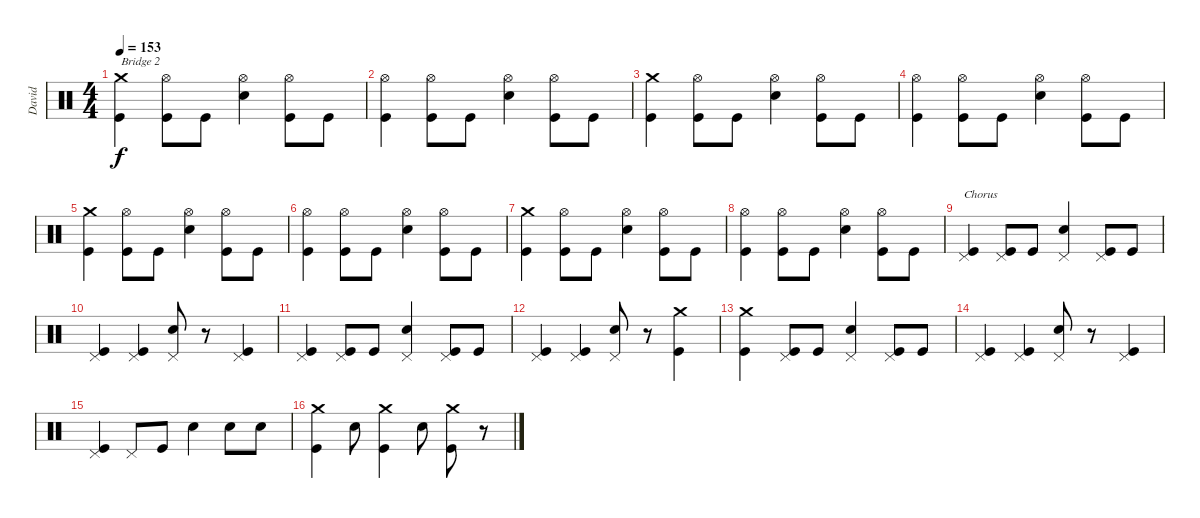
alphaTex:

\track ("David" "David") {instrument percussion}
\staff {score}
\articulation defaults
\ts (4 4)
\tempo 153
\clef neutral
\ks c
("Crash medium (hit)" "Kick (hit)").4{txt "Bridge 2" dy f} ("Hi-Hat (open)" "Kick (hit)").8 "Kick (hit)".8 ("Hi-Hat (open)" "Snare (hit) 2").4 ("Hi-Hat (open)" "Kick (hit)").8 "Kick (hit)".8 |
("Hi-Hat (open)" "Kick (hit)").4 ("Hi-Hat (open)" "Kick (hit)").8 "Kick (hit)".8 ("Hi-Hat (open)" "Snare (hit) 2").4 ("Hi-Hat (open)" "Kick (hit)").8 "Kick (hit)".8 |
("Crash medium (hit)" "Kick (hit)").4 ("Hi-Hat (open)" "Kick (hit)").8 "Kick (hit)".8 ("Hi-Hat (open)" "Snare (hit) 2").4 ("Hi-Hat (open)" "Kick (hit)").8 "Kick (hit)".8 |
("Hi-Hat (open)" "Kick (hit)").4 ("Hi-Hat (open)" "Kick (hit)").8 "Kick (hit)".8 ("Hi-Hat (open)" "Snare (hit) 2").4 ("Hi-Hat (open)" "Kick (hit)").8 "Kick (hit)".8 |
("Crash medium (hit)" "Kick (hit)").4 ("Hi-Hat (open)" "Kick (hit)").8 "Kick (hit)".8 ("Hi-Hat (open)" "Snare (hit) 2").4 ("Hi-Hat (open)" "Kick (hit)").8 "Kick (hit)".8 |
("Hi-Hat (open)" "Kick (hit)").4 ("Hi-Hat (open)" "Kick (hit)").8 "Kick (hit)".8 ("Hi-Hat (open)" "Snare (hit) 2").4 ("Hi-Hat (open)" "Kick (hit)").8 "Kick (hit)".8 |
("Crash medium (hit)" "Kick (hit)").4 ("Hi-Hat (open)" "Kick (hit)").8 "Kick (hit)".8 ("Hi-Hat (open)" "Snare (hit) 2").4 ("Hi-Hat (open)" "Kick (hit)").8 "Kick (hit)".8 |
("Hi-Hat (open)" "Kick (hit)").4 ("Hi-Hat (open)" "Kick (hit)").8 "Kick (hit)".8 ("Hi-Hat (open)" "Snare (hit) 2").4 ("Hi-Hat (open)" "Kick (hit)").8 "Kick (hit)".8 |
("Pedal Hi-Hat (hit)" "Kick (hit)").4{txt "Chorus"} ("Pedal Hi-Hat (hit)" "Kick (hit)").8 "Kick (hit)".8 ("Pedal Hi-Hat (hit)" "Snare (hit) 2").4 ("Pedal Hi-Hat (hit)" "Kick (hit)").8 "Kick (hit)".8 |
("Pedal Hi-Hat (hit)" "Kick (hit)").4 ("Pedal Hi-Hat (hit)" "Kick (hit)").4 ("Pedal Hi-Hat (hit)" "Snare (hit) 2").8 r.8 ("Pedal Hi-Hat (hit)" "Kick (hit)").4 |
("Pedal Hi-Hat (hit)" "Kick (hit)").4 ("Pedal Hi-Hat (hit)" "Kick (hit)").8 "Kick (hit)".8 ("Pedal Hi-Hat (hit)" "Snare (hit) 2").4 ("Pedal Hi-Hat (hit)" "Kick (hit)").8 "Kick (hit)".8 |
("Pedal Hi-Hat (hit)" "Kick (hit)").4 ("Pedal Hi-Hat (hit)" "Kick (hit)").4 ("Pedal Hi-Hat (hit)" "Snare (hit) 2").8 r.8 ("Crash medium (hit)" "Kick (hit)").4 |
("Crash medium (hit)" "Kick (hit)").4 ("Pedal Hi-Hat (hit)" "Kick (hit)").8 "Kick (hit)".8 ("Pedal Hi-Hat (hit)" "Snare (hit) 2").4 ("Pedal Hi-Hat (hit)" "Kick (hit)").8 "Kick (hit)".8 |
("Pedal Hi-Hat (hit)" "Kick (hit)").4 ("Pedal Hi-Hat (hit)" "Kick (hit)").4 ("Pedal Hi-Hat (hit)" "Snare (hit) 2").8 r.8 ("Pedal Hi-Hat (hit)" "Kick (hit)").4 |
("Pedal Hi-Hat (hit)" "Kick (hit)").4 "Pedal Hi-Hat (hit)".8 "Kick (hit)".8 "Snare (hit) 2".4 "Snare (hit) 2".8 "Snare (hit) 2".8 |
("Crash medium (hit)" "Kick (hit)").4 "Snare (hit) 2".8 ("Crash medium (hit)" "Kick (hit)").4 "Snare (hit) 2".8 ("Crash medium (hit)" "Kick (hit)").8 r.8
